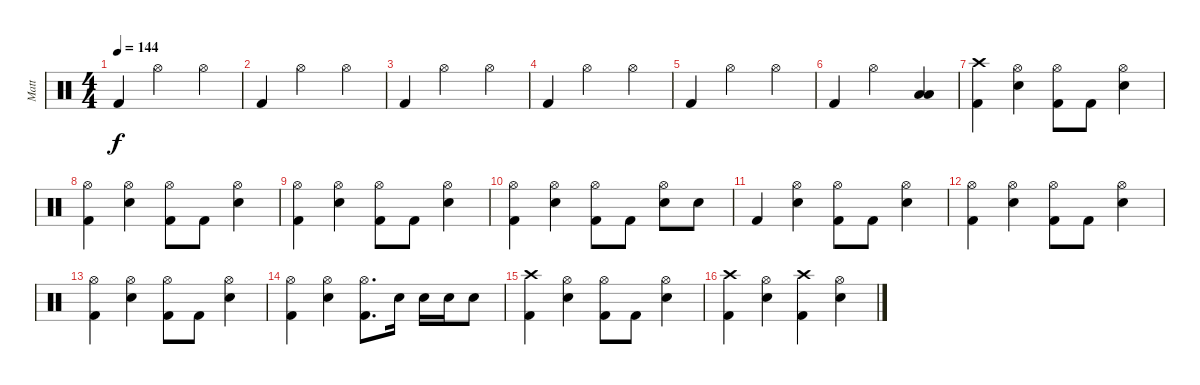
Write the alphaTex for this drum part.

\track ("Matt" "Matt") {instrument percussion}
\staff {score}
\articulation defaults
\ts (4 4)
\tempo 144
\clef neutral
\ks c "Kick (hit) 2".4{dy f} "Hi-Hat (open)".2 "Hi-Hat (open)".4
|
"Kick (hit) 2".4 "Hi-Hat (open)".2 "Hi-Hat (open)".4 |
"Kick (hit) 2".4 "Hi-Hat (open)".2 "Hi-Hat (open)".4 |
"Kick (hit) 2".4 "Hi-Hat (open)".2 "Hi-Hat (open)".4 |
"Kick (hit) 2".4 "Hi-Hat (open)".2 "Hi-Hat (open)".4 |
"Kick (hit) 2".4 "Hi-Hat (open)".2 ("Low Tom (hit)" "Low Floor Tom (hit)").4 |
("Crash high (hit)" "Kick (hit) 2").4 ("Hi-Hat (open)" "Electric Snare (hit)").4 ("Hi-Hat (open)" "Kick (hit) 2").8 "Kick (hit) 2".8 ("Hi-Hat (open)" "Electric Snare (hit)").4 |
("Hi-Hat (open)" "Kick (hit) 2").4 ("Hi-Hat (open)" "Electric Snare (hit)").4 ("Hi-Hat (open)" "Kick (hit) 2").8 "Kick (hit) 2".8 ("Hi-Hat (open)" "Electric Snare (hit)").4 |
("Hi-Hat (open)" "Kick (hit) 2").4 ("Hi-Hat (open)" "Electric Snare (hit)").4 ("Hi-Hat (open)" "Kick (hit) 2").8 "Kick (hit) 2".8 ("Hi-Hat (open)" "Electric Snare (hit)").4 |
("Hi-Hat (open)" "Kick (hit) 2").4 ("Hi-Hat (open)" "Electric Snare (hit)").4 ("Hi-Hat (open)" "Kick (hit) 2").8 "Kick (hit) 2".8 ("Hi-Hat (open)" "Electric Snare (hit)").8 "Electric Snare (hit)".8 |
"Kick (hit) 2".4 ("Hi-Hat (open)" "Electric Snare (hit)").4 ("Hi-Hat (open)" "Kick (hit) 2").8 "Kick (hit) 2".8 ("Hi-Hat (open)" "Electric Snare (hit)").4 |
("Hi-Hat (open)" "Kick (hit) 2").4 ("Hi-Hat (open)" "Electric Snare (hit)").4 ("Hi-Hat (open)" "Kick (hit) 2").8 "Kick (hit) 2".8 ("Hi-Hat (open)" "Electric Snare (hit)").4 |
("Hi-Hat (open)" "Kick (hit) 2").4 ("Hi-Hat (open)" "Electric Snare (hit)").4 ("Hi-Hat (open)" "Kick (hit) 2").8 "Kick (hit) 2".8 ("Hi-Hat (open)" "Electric Snare (hit)").4 |
("Hi-Hat (open)" "Kick (hit) 2").4 ("Hi-Hat (open)" "Electric Snare (hit)").4 ("Hi-Hat (open)" "Kick (hit) 2").8{d} "Electric Snare (hit)".16 "Electric Snare (hit)".16 "Electric Snare (hit)".16 "Electric Snare (hit)".8 |
("Crash high (hit)" "Kick (hit) 2").4 ("Hi-Hat (open)" "Electric Snare (hit)").4 ("Hi-Hat (open)" "Kick (hit) 2").8 "Kick (hit) 2".8 ("Hi-Hat (open)" "Electric Snare (hit)").4 |
("Crash high (hit)" "Kick (hit) 2").4 ("Hi-Hat (open)" "Electric Snare (hit)").4 ("Crash high (hit)" "Kick (hit) 2").4 ("Hi-Hat (open)" "Electric Snare (hit)").4
